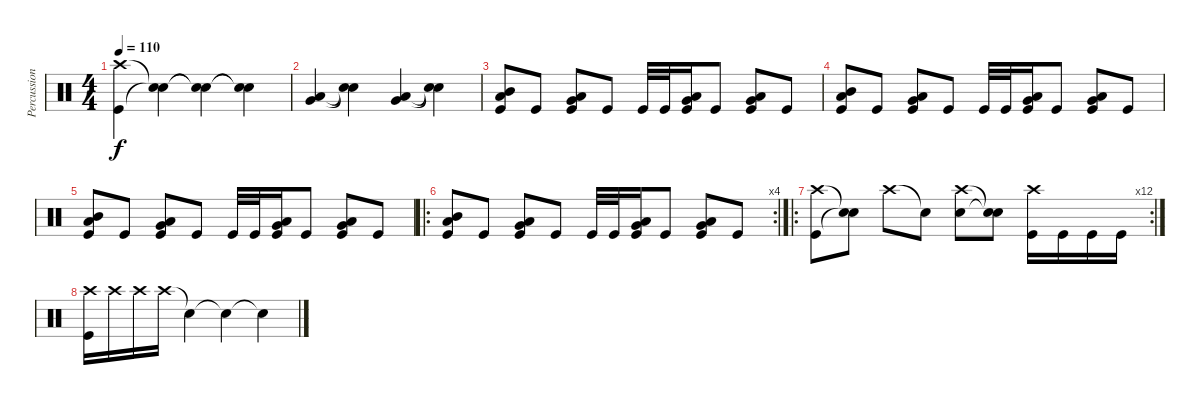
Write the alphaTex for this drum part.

\track ("Percussion" "Percussion") {instrument percussion}
\staff {score}
\articulation defaults
\ts (4 4)
\tempo 110
\clef neutral
\ks c
("Crash high (hit)" "Kick (hit)").4{dy f} ("Snare (hit)"{t} "Snare (hit)"{t}).4 ("Snare (hit)"{t} "Snare (hit)"{t}).4 ("Snare (hit)"{t} "Snare (hit)"{t}).4 |
("Very Low Tom (hit)" "Low Tom (hit)").4 ("Snare (hit)"{t} "Snare (hit)"{t}).4 ("Very Low Tom (hit)" "Low Tom (hit)").4 ("Snare (hit)"{t} "Snare (hit)"{t}).4 |
("Mid Tom (hit)" "Low Tom (hit)" "Kick (hit)").8 "Kick (hit)".8 ("Low Tom (hit)" "Very Low Tom (hit)" "Kick (hit)").8 "Kick (hit)".8 "Kick (hit)".32 "Kick (hit)".32 ("Low Tom (hit)" "Very Low Tom (hit)" "Kick (hit)").16 "Kick (hit)".8 ("Very Low Tom (hit)" "Low Floor Tom (hit)" "Kick (hit)").8 "Kick (hit)".8 |
("Mid Tom (hit)" "Low Tom (hit)" "Kick (hit)").8 "Kick (hit)".8 ("Low Tom (hit)" "Very Low Tom (hit)" "Kick (hit)").8 "Kick (hit)".8 "Kick (hit)".32 "Kick (hit)".32 ("Low Tom (hit)" "Very Low Tom (hit)" "Kick (hit)").16 "Kick (hit)".8 ("Very Low Tom (hit)" "Low Floor Tom (hit)" "Kick (hit)").8 "Kick (hit)".8 |
("Mid Tom (hit)" "Low Tom (hit)" "Kick (hit)").8 "Kick (hit)".8 ("Low Tom (hit)" "Very Low Tom (hit)" "Kick (hit)").8 "Kick (hit)".8 "Kick (hit)".32 "Kick (hit)".32 ("Low Tom (hit)" "Very Low Tom (hit)" "Kick (hit)").16 "Kick (hit)".8 ("Very Low Tom (hit)" "Low Floor Tom (hit)" "Kick (hit)").8 "Kick (hit)".8 |
\ro
\rc 4
("Mid Tom (hit)" "Low Tom (hit)" "Kick (hit)").8 "Kick (hit)".8 ("Low Tom (hit)" "Very Low Tom (hit)" "Kick (hit)").8 "Kick (hit)".8 "Kick (hit)".32 "Kick (hit)".32 ("Low Tom (hit)" "Very Low Tom (hit)" "Kick (hit)").16 "Kick (hit)".8 ("Very Low Tom (hit)" "Low Floor Tom (hit)" "Kick (hit)").8 "Kick (hit)".8 |
\ro
\rc 12
("Crash high (hit)" "Kick (hit)").8 ("Snare (hit)"{t} "Snare (hit)"{t}).8 "Crash high (hit)".8 "Snare (hit)"{t}.8 ("Crash high (hit)" "Electric Snare (hit)").8 ("Snare (hit)"{t} "Snare (hit)"{t}).8 ("Crash high (hit)" "Kick (hit)").16 "Kick (hit)".16 "Kick (hit)".16 "Kick (hit)".16 |
("Crash high (hit)" "Kick (hit)").16 "Crash high (hit)".16 "Crash high (hit)".16 "Crash high (hit)".16 "Snare (hit)"{t}.4 "Snare (hit)"{t}.4 "Snare (hit)"{t}.4
